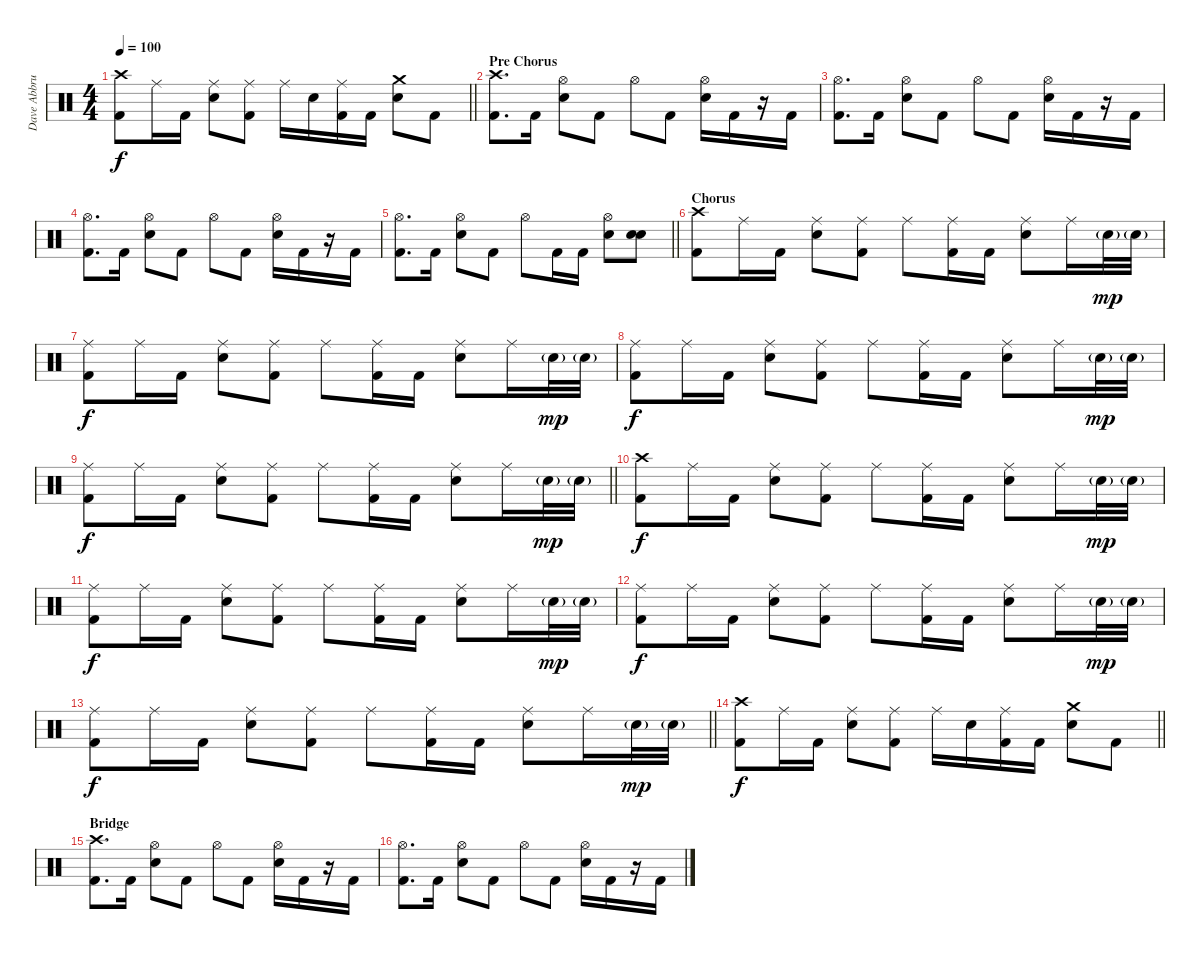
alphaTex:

\track ("Dave Abbruzzese" "Dave Abbru") {instrument percussion}
\staff {score}
\articulation defaults
\ts (4 4)
\tempo 100
\clef neutral
\barLineRight lightlight
\ks c
("Crash high (hit)" "Kick (hit) 2").8{dy f} "Ride (middle)".16 "Kick (hit) 2".16 ("Ride (middle)" "Electric Snare (hit)").8 ("Ride (middle)" "Kick (hit) 2").8 "Ride (middle)".16 "Electric Snare (hit)".16 ("Ride (middle)" "Kick (hit) 2").16 "Kick (hit) 2".16 ("Crash medium (hit)" "Electric Snare (hit)").8 "Kick (hit) 2".8 |
\section ("" "Pre Chorus")
("Crash high (hit)" "Kick (hit) 2").8{d} "Kick (hit) 2".16 ("Hi-Hat (open)" "Electric Snare (hit)").8 "Kick (hit) 2".8 "Hi-Hat (open)".8 "Kick (hit) 2".8 ("Hi-Hat (open)" "Electric Snare (hit)").16 "Kick (hit) 2".16 r.16 "Kick (hit) 2".16 |
("Hi-Hat (open)" "Kick (hit) 2").8{d} "Kick (hit) 2".16 ("Hi-Hat (open)" "Electric Snare (hit)").8 "Kick (hit) 2".8 "Hi-Hat (open)".8 "Kick (hit) 2".8 ("Hi-Hat (open)" "Electric Snare (hit)").16 "Kick (hit) 2".16 r.16 "Kick (hit) 2".16 |
("Hi-Hat (open)" "Kick (hit) 2").8{d} "Kick (hit) 2".16 ("Hi-Hat (open)" "Electric Snare (hit)").8 "Kick (hit) 2".8 "Hi-Hat (open)".8 "Kick (hit) 2".8 ("Hi-Hat (open)" "Electric Snare (hit)").16 "Kick (hit) 2".16 r.16 "Kick (hit) 2".16 |
\barLineRight lightlight
("Hi-Hat (open)" "Kick (hit) 2").8{d} "Kick (hit) 2".16 ("Hi-Hat (open)" "Electric Snare (hit)").8 "Kick (hit) 2".8 "Hi-Hat (open)".8 "Kick (hit) 2".16 "Kick (hit) 2".16 ("Hi-Hat (open)" "Electric Snare (hit)").8 ("Electric Snare (hit)" "Electric Snare (hit)").8 |
\section ("" "Chorus")
("Crash high (hit)" "Kick (hit) 2").8 "Ride (middle)".16 "Kick (hit) 2".16 ("Ride (middle)" "Electric Snare (hit)").8 ("Ride (middle)" "Kick (hit) 2").8 "Ride (middle)".8 ("Ride (middle)" "Kick (hit) 2").16 "Kick (hit) 2".16 ("Ride (middle)" "Electric Snare (hit)").8 "Ride (middle)".16 "Electric Snare (hit)"{g}.32{dy mp} "Electric Snare (hit)"{g}.32 |
("Ride (middle)" "Kick (hit) 2").8{dy f} "Ride (middle)".16 "Kick (hit) 2".16 ("Ride (middle)" "Electric Snare (hit)").8 ("Ride (middle)" "Kick (hit) 2").8 "Ride (middle)".8 ("Ride (middle)" "Kick (hit) 2").16 "Kick (hit) 2".16 ("Ride (middle)" "Electric Snare (hit)").8 "Ride (middle)".16 "Electric Snare (hit)"{g}.32{dy mp} "Electric Snare (hit)"{g}.32 |
("Ride (middle)" "Kick (hit) 2").8{dy f} "Ride (middle)".16 "Kick (hit) 2".16 ("Ride (middle)" "Electric Snare (hit)").8 ("Ride (middle)" "Kick (hit) 2").8 "Ride (middle)".8 ("Ride (middle)" "Kick (hit) 2").16 "Kick (hit) 2".16 ("Ride (middle)" "Electric Snare (hit)").8 "Ride (middle)".16 "Electric Snare (hit)"{g}.32{dy mp} "Electric Snare (hit)"{g}.32 |
\barLineRight lightlight
("Ride (middle)" "Kick (hit) 2").8{dy f} "Ride (middle)".16 "Kick (hit) 2".16 ("Ride (middle)" "Electric Snare (hit)").8 ("Ride (middle)" "Kick (hit) 2").8 "Ride (middle)".8 ("Ride (middle)" "Kick (hit) 2").16 "Kick (hit) 2".16 ("Ride (middle)" "Electric Snare (hit)").8 "Ride (middle)".16 "Electric Snare (hit)"{g}.32{dy mp} "Electric Snare (hit)"{g}.32 |
("Crash high (hit)" "Kick (hit) 2").8{dy f} "Ride (middle)".16 "Kick (hit) 2".16 ("Ride (middle)" "Electric Snare (hit)").8 ("Ride (middle)" "Kick (hit) 2").8 "Ride (middle)".8 ("Ride (middle)" "Kick (hit) 2").16 "Kick (hit) 2".16 ("Ride (middle)" "Electric Snare (hit)").8 "Ride (middle)".16 "Electric Snare (hit)"{g}.32{dy mp} "Electric Snare (hit)"{g}.32 |
("Ride (middle)" "Kick (hit) 2").8{dy f} "Ride (middle)".16 "Kick (hit) 2".16 ("Ride (middle)" "Electric Snare (hit)").8 ("Ride (middle)" "Kick (hit) 2").8 "Ride (middle)".8 ("Ride (middle)" "Kick (hit) 2").16 "Kick (hit) 2".16 ("Ride (middle)" "Electric Snare (hit)").8 "Ride (middle)".16 "Electric Snare (hit)"{g}.32{dy mp} "Electric Snare (hit)"{g}.32 |
("Ride (middle)" "Kick (hit) 2").8{dy f} "Ride (middle)".16 "Kick (hit) 2".16 ("Ride (middle)" "Electric Snare (hit)").8 ("Ride (middle)" "Kick (hit) 2").8 "Ride (middle)".8 ("Ride (middle)" "Kick (hit) 2").16 "Kick (hit) 2".16 ("Ride (middle)" "Electric Snare (hit)").8 "Ride (middle)".16 "Electric Snare (hit)"{g}.32{dy mp} "Electric Snare (hit)"{g}.32 |
\barLineRight lightlight
("Ride (middle)" "Kick (hit) 2").8{dy f} "Ride (middle)".16 "Kick (hit) 2".16 ("Ride (middle)" "Electric Snare (hit)").8 ("Ride (middle)" "Kick (hit) 2").8 "Ride (middle)".8 ("Ride (middle)" "Kick (hit) 2").16 "Kick (hit) 2".16 ("Ride (middle)" "Electric Snare (hit)").8 "Ride (middle)".16 "Electric Snare (hit)"{g}.32{dy mp} "Electric Snare (hit)"{g}.32 |
\barLineRight lightlight
("Crash high (hit)" "Kick (hit) 2").8{dy f} "Ride (middle)".16 "Kick (hit) 2".16 ("Ride (middle)" "Electric Snare (hit)").8 ("Ride (middle)" "Kick (hit) 2").8 "Ride (middle)".16 "Electric Snare (hit)".16 ("Ride (middle)" "Kick (hit) 2").16 "Kick (hit) 2".16 ("Crash medium (hit)" "Electric Snare (hit)").8 "Kick (hit) 2".8 |
\section ("" "Bridge")
("Crash high (hit)" "Kick (hit) 2").8{d} "Kick (hit) 2".16 ("Hi-Hat (open)" "Electric Snare (hit)").8 "Kick (hit) 2".8 "Hi-Hat (open)".8 "Kick (hit) 2".8 ("Hi-Hat (open)" "Electric Snare (hit)").16 "Kick (hit) 2".16 r.16 "Kick (hit) 2".16 |
("Hi-Hat (open)" "Kick (hit) 2").8{d} "Kick (hit) 2".16 ("Hi-Hat (open)" "Electric Snare (hit)").8 "Kick (hit) 2".8 "Hi-Hat (open)".8 "Kick (hit) 2".8 ("Hi-Hat (open)" "Electric Snare (hit)").16 "Kick (hit) 2".16 r.16 "Kick (hit) 2".16
